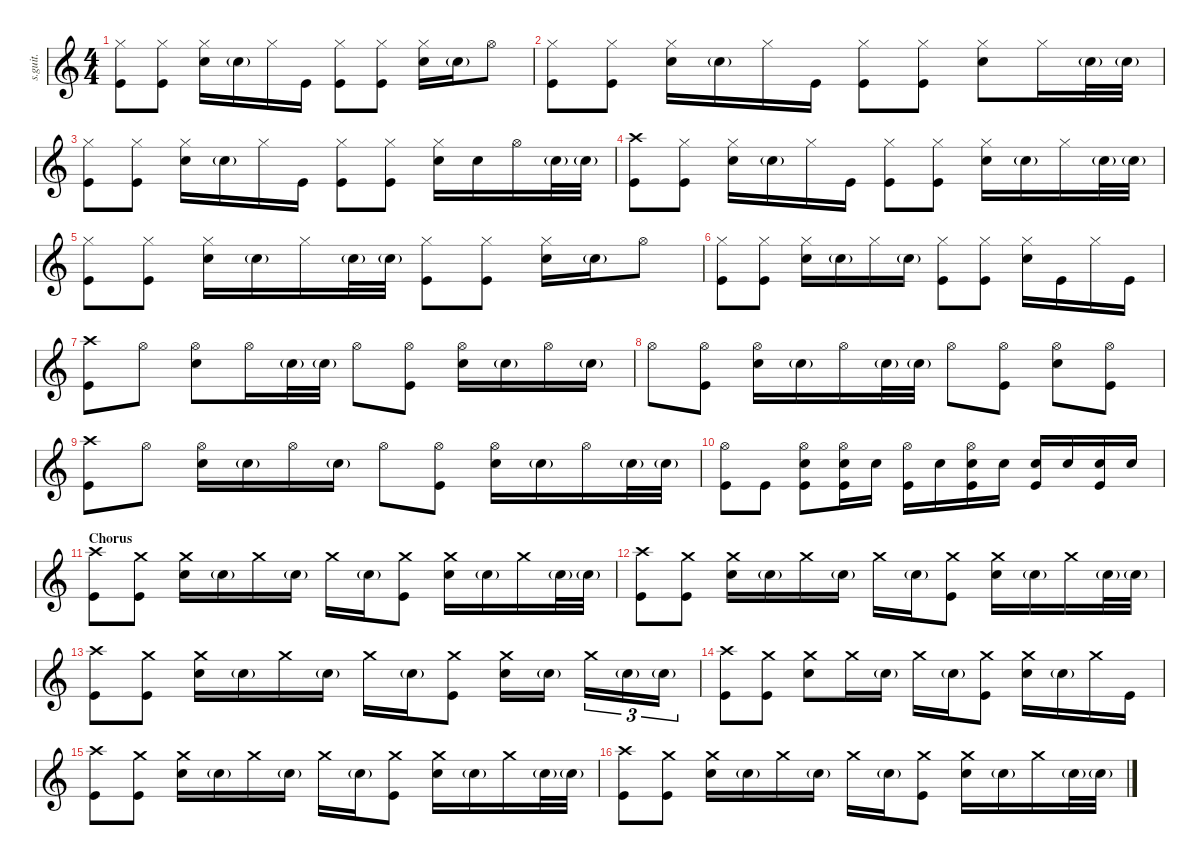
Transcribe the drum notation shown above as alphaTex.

\defaultSystemsLayout 4
\hideDynamics
\bracketExtendMode nobrackets
\track ("Chad Smith" "s.guit.") {instrument percussion}
\staff {score}
\articulation defaults
\ts (4 4)
\tempo (96 hide)
\clef g2
\ks c
("Hi-Hat (closed)" "Kick (hit)").8{dy f} ("Hi-Hat (closed)" "Kick (hit)").8{dy p} ("Hi-Hat (closed)" "Snare (hit) 2").16{dy f} "Snare (hit) 2"{g}.16{dy pp} "Hi-Hat (closed)".16{dy p} "Kick (hit)".16{dy f} ("Hi-Hat (closed)" "Kick (hit)").8 ("Hi-Hat (closed)" "Kick (hit)").8{dy p} ("Hi-Hat (closed)" "Snare (hit) 2").16{dy f} "Snare (hit) 2"{g}.16{dy pp} "Hi-Hat (open)".8{dy f} |
("Hi-Hat (closed)" "Kick (hit)").8 ("Hi-Hat (closed)" "Kick (hit)").8{dy p} ("Hi-Hat (closed)" "Snare (hit) 2").16{dy f} "Snare (hit) 2"{g}.16{dy pp} "Hi-Hat (closed)".16{dy p} "Kick (hit)".16{dy f} ("Hi-Hat (closed)" "Kick (hit)").8 ("Hi-Hat (closed)" "Kick (hit)").8{dy p} ("Hi-Hat (closed)" "Snare (hit) 2").8{dy f} "Hi-Hat (closed)".16{dy p} "Snare (hit) 2"{g}.32{dy pp} "Snare (hit) 2"{g}.32 |
("Hi-Hat (closed)" "Kick (hit)").8{dy f} ("Hi-Hat (closed)" "Kick (hit)").8{dy p} ("Hi-Hat (closed)" "Snare (hit) 2").16{dy f} "Snare (hit) 2"{g}.16{dy pp} "Hi-Hat (closed)".16{dy p} "Kick (hit)".16{dy f} ("Hi-Hat (closed)" "Kick (hit)").8 ("Hi-Hat (closed)" "Kick (hit)").8{dy p} ("Hi-Hat (closed)" "Snare (hit) 2").16{dy f} "Snare (hit) 2".16 "Hi-Hat (open)".16 "Snare (hit) 2"{g}.32{dy pp} "Snare (hit) 2"{g}.32 |
("Crash high (hit)" "Kick (hit)").8{dy f} ("Hi-Hat (closed)" "Kick (hit)").8{dy p} ("Hi-Hat (closed)" "Snare (hit) 2").16{dy f} "Snare (hit) 2"{g}.16{dy pp} "Hi-Hat (closed)".16{dy p} "Kick (hit)".16{dy f} ("Hi-Hat (closed)" "Kick (hit)").8 ("Hi-Hat (closed)" "Kick (hit)").8{dy p} ("Hi-Hat (closed)" "Snare (hit) 2").16{dy f} "Snare (hit) 2"{g}.16{dy pp} "Hi-Hat (closed)".16{dy p} "Snare (hit) 2"{g}.32{dy pp} "Snare (hit) 2"{g}.32 |
("Hi-Hat (closed)" "Kick (hit)").8{dy f} ("Hi-Hat (closed)" "Kick (hit)").8{dy p} ("Hi-Hat (closed)" "Snare (hit) 2").16{dy f} "Snare (hit) 2"{g}.16{dy pp} "Hi-Hat (closed)".16{dy p} "Snare (hit) 2"{g}.32{dy pp} "Snare (hit) 2"{g}.32 ("Hi-Hat (closed)" "Kick (hit)").8{dy f} ("Hi-Hat (closed)" "Kick (hit)").8{dy p} ("Hi-Hat (closed)" "Snare (hit) 2").16{dy f} "Snare (hit) 2"{g}.16{dy pp} "Hi-Hat (open)".8{dy f} |
("Hi-Hat (closed)" "Kick (hit)").8 ("Hi-Hat (closed)" "Kick (hit)").8{dy p} ("Hi-Hat (closed)" "Snare (hit) 2").16{dy f} "Snare (hit) 2"{g}.16{dy pp} "Hi-Hat (closed)".16{dy p} "Snare (hit) 2"{g}.16{dy pp} ("Hi-Hat (closed)" "Kick (hit)").8{dy f} ("Hi-Hat (closed)" "Kick (hit)").8{dy p} ("Hi-Hat (closed)" "Snare (hit) 2").16{dy f} "Kick (hit)".16 "Hi-Hat (closed)".16{dy p} "Kick (hit)".16{dy f} |
("Crash high (hit)" "Kick (hit)").8 "Hi-Hat (open)".8{dy p} ("Hi-Hat (open)" "Snare (hit) 2").8{dy f} "Hi-Hat (open)".16{dy p} "Snare (hit) 2"{g}.32{dy pp} "Snare (hit) 2"{g}.32 "Hi-Hat (open)".8{dy f} ("Hi-Hat (open)" "Kick (hit)").8{dy p} ("Hi-Hat (open)" "Snare (hit) 2").16{dy f} "Snare (hit) 2"{g}.16{dy pp} "Hi-Hat (open)".16{dy p} "Snare (hit) 2"{g}.16{dy pp} |
"Hi-Hat (open)".8{dy f} ("Hi-Hat (open)" "Kick (hit)").8{dy p} ("Hi-Hat (open)" "Snare (hit) 2").16{dy f} "Snare (hit) 2"{g}.16{dy pp} "Hi-Hat (open)".16{dy p} "Snare (hit) 2"{g}.32{dy pp} "Snare (hit) 2"{g}.32 "Hi-Hat (open)".8{dy f} ("Hi-Hat (open)" "Kick (hit)").8{dy p} ("Hi-Hat (open)" "Snare (hit) 2").8{dy f} ("Hi-Hat (open)" "Kick (hit)").8{dy p} |
("Crash high (hit)" "Kick (hit)").8{dy f} "Hi-Hat (open)".8{dy p} ("Hi-Hat (open)" "Snare (hit) 2").16{dy f} "Snare (hit) 2"{g}.16{dy pp} "Hi-Hat (open)".16{dy p} "Snare (hit) 2"{g}.16{dy pp} "Hi-Hat (open)".8{dy f} ("Hi-Hat (open)" "Kick (hit)").8{dy p} ("Hi-Hat (open)" "Snare (hit) 2").16{dy f} "Snare (hit) 2"{g}.16{dy pp} "Hi-Hat (open)".16{dy p} "Snare (hit) 2"{g}.32{dy pp} "Snare (hit) 2"{g}.32 |
("Hi-Hat (open)" "Kick (hit)").8{dy f} "Kick (hit)".8 ("Hi-Hat (open)" "Snare (hit) 2" "Kick (hit)").8 ("Hi-Hat (open)" "Snare (hit) 2" "Kick (hit)").16 "Snare (hit) 2".16 ("Hi-Hat (open)" "Kick (hit)").16 "Snare (hit) 2".16{dy p} ("Hi-Hat (open)" "Snare (hit) 2" "Kick (hit)").16{dy f} "Snare (hit) 2".16{dy mp} ("Snare (hit) 2" "Kick (hit)").16{dy mf} "Snare (hit) 2".16 ("Snare (hit) 2" "Kick (hit)").16{dy f} "Snare (hit) 2".16 |
\section ("" "Chorus")
("Crash high (hit)" "Kick (hit)").8 ("Crash medium (hit)" "Kick (hit)").8 ("Crash medium (hit)" "Snare (hit) 2").16 "Snare (hit) 2"{g}.16{dy pp} "Crash medium (hit)".16{dy f} "Snare (hit) 2"{g}.16{dy pp} "Crash medium (hit)".16{dy f} "Snare (hit) 2"{g}.16{dy pp} ("Crash medium (hit)" "Kick (hit)").8{dy f} ("Crash medium (hit)" "Snare (hit) 2").16 "Snare (hit) 2"{g}.16{dy pp} "Crash medium (hit)".16{dy f} "Snare (hit) 2"{g}.32{dy pp} "Snare (hit) 2"{g}.32 |
("Crash high (hit)" "Kick (hit)").8{dy f} ("Crash medium (hit)" "Kick (hit)").8 ("Crash medium (hit)" "Snare (hit) 2").16 "Snare (hit) 2"{g}.16{dy pp} "Crash medium (hit)".16{dy f} "Snare (hit) 2"{g}.16{dy pp} "Crash medium (hit)".16{dy f} "Snare (hit) 2"{g}.16{dy pp} ("Crash medium (hit)" "Kick (hit)").8{dy f} ("Crash medium (hit)" "Snare (hit) 2").16 "Snare (hit) 2"{g}.16{dy pp} "Crash medium (hit)".16{dy f} "Snare (hit) 2"{g}.32{dy pp} "Snare (hit) 2"{g}.32 |
("Crash high (hit)" "Kick (hit)").8{dy f} ("Crash medium (hit)" "Kick (hit)").8 ("Crash medium (hit)" "Snare (hit) 2").16 "Snare (hit) 2"{g}.16{dy pp} "Crash medium (hit)".16{dy f} "Snare (hit) 2"{g}.16{dy pp} "Crash medium (hit)".16{dy f} "Snare (hit) 2"{g}.16{dy pp} ("Crash medium (hit)" "Kick (hit)").8{dy f} ("Crash medium (hit)" "Snare (hit) 2").16 "Snare (hit) 2"{g}.16{dy pp} "Crash medium (hit)".16{tu (3 2) dy f} "Snare (hit) 2"{g}.16{tu (3 2) dy pp} "Snare (hit) 2"{g}.16{tu (3 2)} |
("Crash high (hit)" "Kick (hit)").8{dy f} ("Crash medium (hit)" "Kick (hit)").8 ("Crash medium (hit)" "Snare (hit) 2").8 "Crash medium (hit)".16 "Snare (hit) 2"{g}.16{dy pp} "Crash medium (hit)".16{dy f} "Snare (hit) 2"{g}.16{dy pp} ("Crash medium (hit)" "Kick (hit)").8{dy f} ("Crash medium (hit)" "Snare (hit) 2").16 "Snare (hit) 2"{g}.16{dy pp} "Crash medium (hit)".16{dy f} "Kick (hit)".16 |
("Crash high (hit)" "Kick (hit)").8 ("Crash medium (hit)" "Kick (hit)").8 ("Crash medium (hit)" "Snare (hit) 2").16 "Snare (hit) 2"{g}.16{dy pp} "Crash medium (hit)".16{dy f} "Snare (hit) 2"{g}.16{dy pp} "Crash medium (hit)".16{dy f} "Snare (hit) 2"{g}.16{dy pp} ("Crash medium (hit)" "Kick (hit)").8{dy f} ("Crash medium (hit)" "Snare (hit) 2").16 "Snare (hit) 2"{g}.16{dy pp} "Crash medium (hit)".16{dy f} "Snare (hit) 2"{g}.32{dy pp} "Snare (hit) 2"{g}.32 |
("Crash high (hit)" "Kick (hit)").8{dy f} ("Crash medium (hit)" "Kick (hit)").8 ("Crash medium (hit)" "Snare (hit) 2").16 "Snare (hit) 2"{g}.16{dy pp} "Crash medium (hit)".16{dy f} "Snare (hit) 2"{g}.16{dy pp} "Crash medium (hit)".16{dy f} "Snare (hit) 2"{g}.16{dy pp} ("Crash medium (hit)" "Kick (hit)").8{dy f} ("Crash medium (hit)" "Snare (hit) 2").16 "Snare (hit) 2"{g}.16{dy pp} "Crash medium (hit)".16{dy f} "Snare (hit) 2"{g}.32{dy pp} "Snare (hit) 2"{g}.32
